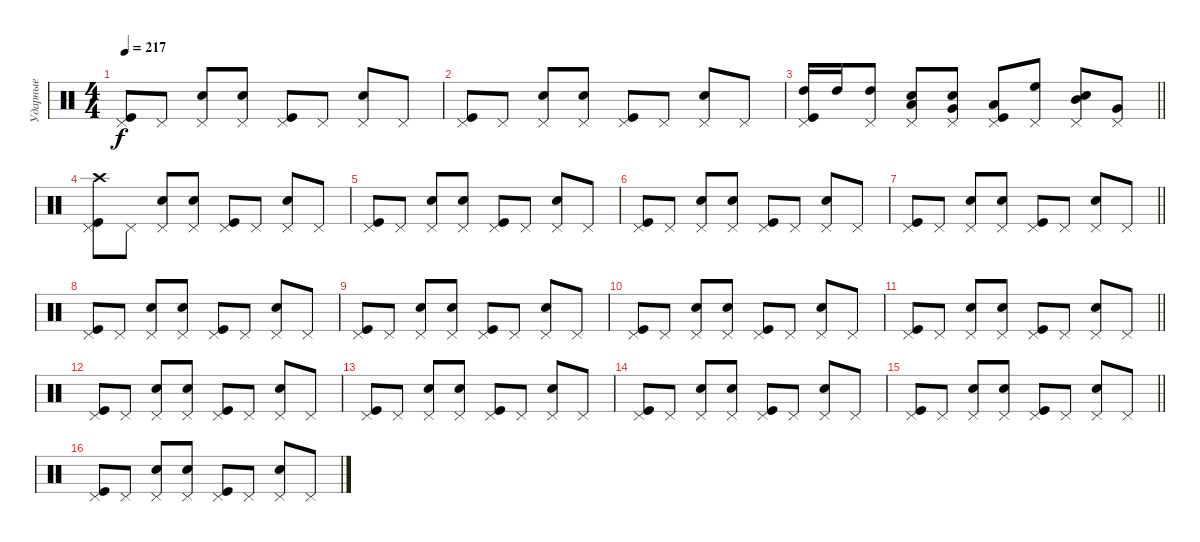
\track ("Ударные" "Ударные") {instrument percussion}
\staff {score}
\articulation defaults
\ts (4 4)
\tempo 217
\clef neutral
\ks c
("Pedal Hi-Hat (hit)" "Kick (hit)").8{dy f} "Pedal Hi-Hat (hit)".8 ("Pedal Hi-Hat (hit)" "Snare (hit) 2").8 ("Pedal Hi-Hat (hit)" "Snare (hit) 2").8 ("Pedal Hi-Hat (hit)" "Kick (hit)").8 "Pedal Hi-Hat (hit)".8 ("Pedal Hi-Hat (hit)" "Snare (hit) 2").8 "Pedal Hi-Hat (hit)".8 |
("Pedal Hi-Hat (hit)" "Kick (hit)").8 "Pedal Hi-Hat (hit)".8 ("Pedal Hi-Hat (hit)" "Snare (hit) 2").8 ("Pedal Hi-Hat (hit)" "Snare (hit) 2").8 ("Pedal Hi-Hat (hit)" "Kick (hit)").8 "Pedal Hi-Hat (hit)".8 ("Pedal Hi-Hat (hit)" "Snare (hit) 2").8 "Pedal Hi-Hat (hit)".8 |
\barLineRight lightlight
("Pedal Hi-Hat (hit)" "Kick (hit)" "High Tom (hit)").16 "High Tom (hit)".16 ("Pedal Hi-Hat (hit)" "High Tom (hit)").8 ("Pedal Hi-Hat (hit)" "Snare (hit) 2" "Low Tom (hit)").8 ("Pedal Hi-Hat (hit)" "Snare (hit) 2" "Very Low Tom (hit)").8 ("Pedal Hi-Hat (hit)" "Kick (hit)" "Low Tom (hit)").8 ("Pedal Hi-Hat (hit)" "High Floor Tom (hit)").8 ("Pedal Hi-Hat (hit)" "Snare (hit) 2" "Mid Tom (hit)").8 ("Pedal Hi-Hat (hit)" "Very Low Tom (hit)").8 |
("Pedal Hi-Hat (hit)" "Kick (hit)" "Crash high (hit)").8 "Pedal Hi-Hat (hit)".8 ("Pedal Hi-Hat (hit)" "Snare (hit) 2").8 ("Pedal Hi-Hat (hit)" "Snare (hit) 2").8 ("Pedal Hi-Hat (hit)" "Kick (hit)").8 "Pedal Hi-Hat (hit)".8 ("Pedal Hi-Hat (hit)" "Snare (hit) 2").8 "Pedal Hi-Hat (hit)".8 |
("Pedal Hi-Hat (hit)" "Kick (hit)").8 "Pedal Hi-Hat (hit)".8 ("Pedal Hi-Hat (hit)" "Snare (hit) 2").8 ("Pedal Hi-Hat (hit)" "Snare (hit) 2").8 ("Pedal Hi-Hat (hit)" "Kick (hit)").8 "Pedal Hi-Hat (hit)".8 ("Pedal Hi-Hat (hit)" "Snare (hit) 2").8 "Pedal Hi-Hat (hit)".8 |
("Pedal Hi-Hat (hit)" "Kick (hit)").8 "Pedal Hi-Hat (hit)".8 ("Pedal Hi-Hat (hit)" "Snare (hit) 2").8 ("Pedal Hi-Hat (hit)" "Snare (hit) 2").8 ("Pedal Hi-Hat (hit)" "Kick (hit)").8 "Pedal Hi-Hat (hit)".8 ("Pedal Hi-Hat (hit)" "Snare (hit) 2").8 "Pedal Hi-Hat (hit)".8 |
\barLineRight lightlight
("Pedal Hi-Hat (hit)" "Kick (hit)").8 "Pedal Hi-Hat (hit)".8 ("Pedal Hi-Hat (hit)" "Snare (hit) 2").8 ("Pedal Hi-Hat (hit)" "Snare (hit) 2").8 ("Pedal Hi-Hat (hit)" "Kick (hit)").8 "Pedal Hi-Hat (hit)".8 ("Pedal Hi-Hat (hit)" "Snare (hit) 2").8 "Pedal Hi-Hat (hit)".8 |
("Pedal Hi-Hat (hit)" "Kick (hit)").8 "Pedal Hi-Hat (hit)".8 ("Pedal Hi-Hat (hit)" "Snare (hit) 2").8 ("Pedal Hi-Hat (hit)" "Snare (hit) 2").8 ("Pedal Hi-Hat (hit)" "Kick (hit)").8 "Pedal Hi-Hat (hit)".8 ("Pedal Hi-Hat (hit)" "Snare (hit) 2").8 "Pedal Hi-Hat (hit)".8 |
("Pedal Hi-Hat (hit)" "Kick (hit)").8 "Pedal Hi-Hat (hit)".8 ("Pedal Hi-Hat (hit)" "Snare (hit) 2").8 ("Pedal Hi-Hat (hit)" "Snare (hit) 2").8 ("Pedal Hi-Hat (hit)" "Kick (hit)").8 "Pedal Hi-Hat (hit)".8 ("Pedal Hi-Hat (hit)" "Snare (hit) 2").8 "Pedal Hi-Hat (hit)".8 |
("Pedal Hi-Hat (hit)" "Kick (hit)").8 "Pedal Hi-Hat (hit)".8 ("Pedal Hi-Hat (hit)" "Snare (hit) 2").8 ("Pedal Hi-Hat (hit)" "Snare (hit) 2").8 ("Pedal Hi-Hat (hit)" "Kick (hit)").8 "Pedal Hi-Hat (hit)".8 ("Pedal Hi-Hat (hit)" "Snare (hit) 2").8 "Pedal Hi-Hat (hit)".8 |
\barLineRight lightlight
("Pedal Hi-Hat (hit)" "Kick (hit)").8 "Pedal Hi-Hat (hit)".8 ("Pedal Hi-Hat (hit)" "Snare (hit) 2").8 ("Pedal Hi-Hat (hit)" "Snare (hit) 2").8 ("Pedal Hi-Hat (hit)" "Kick (hit)").8 "Pedal Hi-Hat (hit)".8 ("Pedal Hi-Hat (hit)" "Snare (hit) 2").8 "Pedal Hi-Hat (hit)".8 |
("Pedal Hi-Hat (hit)" "Kick (hit)").8 "Pedal Hi-Hat (hit)".8 ("Pedal Hi-Hat (hit)" "Snare (hit) 2").8 ("Pedal Hi-Hat (hit)" "Snare (hit) 2").8 ("Pedal Hi-Hat (hit)" "Kick (hit)").8 "Pedal Hi-Hat (hit)".8 ("Pedal Hi-Hat (hit)" "Snare (hit) 2").8 "Pedal Hi-Hat (hit)".8 |
("Pedal Hi-Hat (hit)" "Kick (hit)").8 "Pedal Hi-Hat (hit)".8 ("Pedal Hi-Hat (hit)" "Snare (hit) 2").8 ("Pedal Hi-Hat (hit)" "Snare (hit) 2").8 ("Pedal Hi-Hat (hit)" "Kick (hit)").8 "Pedal Hi-Hat (hit)".8 ("Pedal Hi-Hat (hit)" "Snare (hit) 2").8 "Pedal Hi-Hat (hit)".8 |
("Pedal Hi-Hat (hit)" "Kick (hit)").8 "Pedal Hi-Hat (hit)".8 ("Pedal Hi-Hat (hit)" "Snare (hit) 2").8 ("Pedal Hi-Hat (hit)" "Snare (hit) 2").8 ("Pedal Hi-Hat (hit)" "Kick (hit)").8 "Pedal Hi-Hat (hit)".8 ("Pedal Hi-Hat (hit)" "Snare (hit) 2").8 "Pedal Hi-Hat (hit)".8 |
\barLineRight lightlight
("Pedal Hi-Hat (hit)" "Kick (hit)").8 "Pedal Hi-Hat (hit)".8 ("Pedal Hi-Hat (hit)" "Snare (hit) 2").8 ("Pedal Hi-Hat (hit)" "Snare (hit) 2").8 ("Pedal Hi-Hat (hit)" "Kick (hit)").8 "Pedal Hi-Hat (hit)".8 ("Pedal Hi-Hat (hit)" "Snare (hit) 2").8 "Pedal Hi-Hat (hit)".8 |
("Pedal Hi-Hat (hit)" "Kick (hit)").8 "Pedal Hi-Hat (hit)".8 ("Pedal Hi-Hat (hit)" "Snare (hit) 2").8 ("Pedal Hi-Hat (hit)" "Snare (hit) 2").8 ("Pedal Hi-Hat (hit)" "Kick (hit)").8 "Pedal Hi-Hat (hit)".8 ("Pedal Hi-Hat (hit)" "Snare (hit) 2").8 "Pedal Hi-Hat (hit)".8
